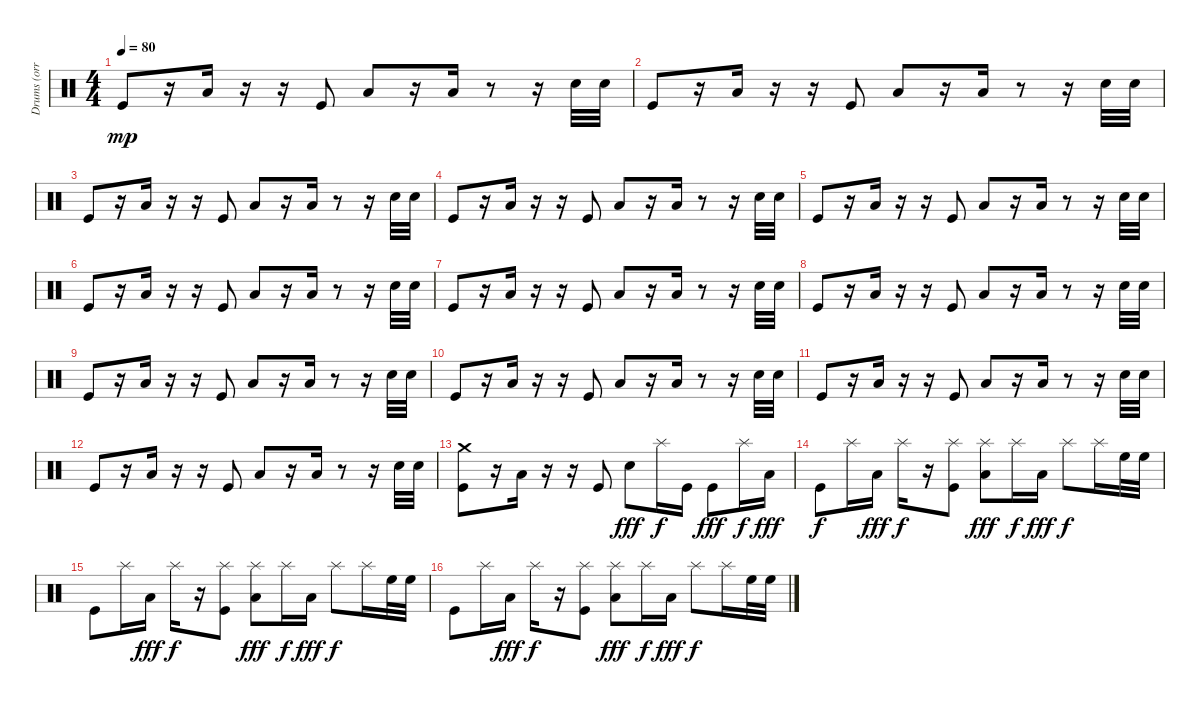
\track ("Drums (orri páll dırason)" "Drums (orr") {instrument percussion}
\staff {score}
\articulation defaults
\ts (4 4)
\tempo 80
\clef neutral
\ks c "Kick (hit)".8{dy mp}
r.16 "Low Tom (hit)".16 r.16 r.16 "Kick (hit)".8 "Low Tom (hit)".8 r.16 "Low Tom (hit)".16 r.8 r.16 "Electric Snare (hit)".32 "Electric Snare (hit)".32 |
"Kick (hit)".8 r.16 "Low Tom (hit)".16 r.16 r.16 "Kick (hit)".8 "Low Tom (hit)".8 r.16 "Low Tom (hit)".16 r.8 r.16 "Electric Snare (hit)".32 "Electric Snare (hit)".32 |
"Kick (hit)".8 r.16 "Low Tom (hit)".16 r.16 r.16 "Kick (hit)".8 "Low Tom (hit)".8 r.16 "Low Tom (hit)".16 r.8 r.16 "Electric Snare (hit)".32 "Electric Snare (hit)".32 |
"Kick (hit)".8 r.16 "Low Tom (hit)".16 r.16 r.16 "Kick (hit)".8 "Low Tom (hit)".8 r.16 "Low Tom (hit)".16 r.8 r.16 "Electric Snare (hit)".32 "Electric Snare (hit)".32 |
"Kick (hit)".8 r.16 "Low Tom (hit)".16 r.16 r.16 "Kick (hit)".8 "Low Tom (hit)".8 r.16 "Low Tom (hit)".16 r.8 r.16 "Electric Snare (hit)".32 "Electric Snare (hit)".32 |
"Kick (hit)".8 r.16 "Low Tom (hit)".16 r.16 r.16 "Kick (hit)".8 "Low Tom (hit)".8 r.16 "Low Tom (hit)".16 r.8 r.16 "Electric Snare (hit)".32 "Electric Snare (hit)".32 |
"Kick (hit)".8 r.16 "Low Tom (hit)".16 r.16 r.16 "Kick (hit)".8 "Low Tom (hit)".8 r.16 "Low Tom (hit)".16 r.8 r.16 "Electric Snare (hit)".32 "Electric Snare (hit)".32 |
"Kick (hit)".8 r.16 "Low Tom (hit)".16 r.16 r.16 "Kick (hit)".8 "Low Tom (hit)".8 r.16 "Low Tom (hit)".16 r.8 r.16 "Electric Snare (hit)".32 "Electric Snare (hit)".32 |
"Kick (hit)".8 r.16 "Low Tom (hit)".16 r.16 r.16 "Kick (hit)".8 "Low Tom (hit)".8 r.16 "Low Tom (hit)".16 r.8 r.16 "Electric Snare (hit)".32 "Electric Snare (hit)".32 |
"Kick (hit)".8 r.16 "Low Tom (hit)".16 r.16 r.16 "Kick (hit)".8 "Low Tom (hit)".8 r.16 "Low Tom (hit)".16 r.8 r.16 "Electric Snare (hit)".32 "Electric Snare (hit)".32 |
"Kick (hit)".8 r.16 "Low Tom (hit)".16 r.16 r.16 "Kick (hit)".8 "Low Tom (hit)".8 r.16 "Low Tom (hit)".16 r.8 r.16 "Electric Snare (hit)".32 "Electric Snare (hit)".32 |
"Kick (hit)".8 r.16 "Low Tom (hit)".16 r.16 r.16 "Kick (hit)".8 "Low Tom (hit)".8 r.16 "Low Tom (hit)".16 r.8 r.16 "Electric Snare (hit)".32 "Electric Snare (hit)".32 |
("Crash medium (hit)" "Kick (hit)").8 r.16 "Low Tom (hit)".16 r.16 r.16 "Kick (hit)".8 "Electric Snare (hit)".8{dy fff} "Splash (hit)".16{dy f} "Kick (hit)".16 "Kick (hit)".8{dy fff} "Splash (hit)".16{dy f} "Low Tom (hit)".16{dy fff} |
"Kick (hit)".8{dy f} "Splash (hit)".16 "Low Tom (hit)".16{dy fff} "Splash (hit)".16{dy f} r.16 ("Splash (hit)" "Kick (hit)").8 ("Splash (hit)" "Low Tom (hit)").8{dy fff} "Splash (hit)".16{dy f} "Low Tom (hit)".16{dy fff} "Splash (hit)".8{dy f} "Splash (hit)".16 "High Floor Tom (hit)".32 "High Floor Tom (hit)".32 |
"Kick (hit)".8 "Splash (hit)".16 "Low Tom (hit)".16{dy fff} "Splash (hit)".16{dy f} r.16 ("Splash (hit)" "Kick (hit)").8 ("Splash (hit)" "Low Tom (hit)").8{dy fff} "Splash (hit)".16{dy f} "Low Tom (hit)".16{dy fff} "Splash (hit)".8{dy f} "Splash (hit)".16 "High Floor Tom (hit)".32 "High Floor Tom (hit)".32 |
"Kick (hit)".8 "Splash (hit)".16 "Low Tom (hit)".16{dy fff} "Splash (hit)".16{dy f} r.16 ("Splash (hit)" "Kick (hit)").8 ("Splash (hit)" "Low Tom (hit)").8{dy fff} "Splash (hit)".16{dy f} "Low Tom (hit)".16{dy fff} "Splash (hit)".8{dy f} "Splash (hit)".16 "High Floor Tom (hit)".32 "High Floor Tom (hit)".32
